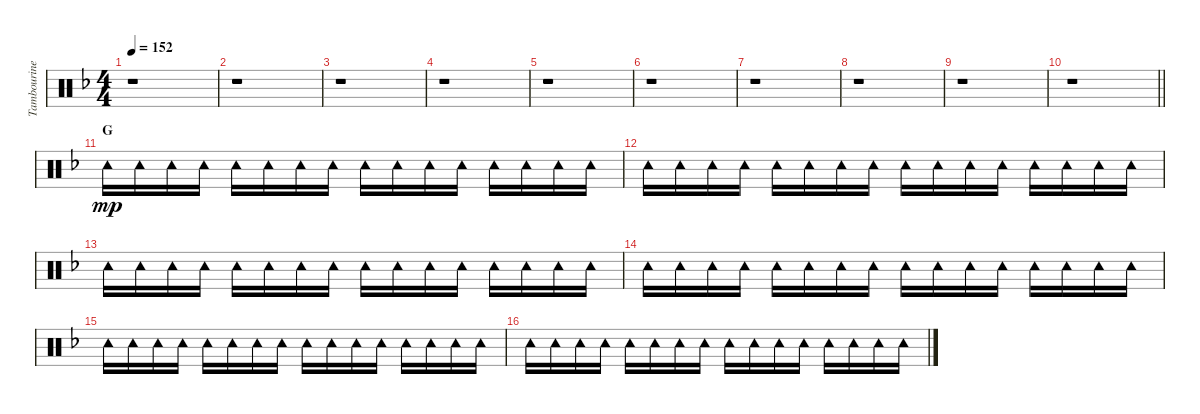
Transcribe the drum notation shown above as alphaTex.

\track ("Tambourine" "Tambourine") {instrument percussion}
\staff {score}
\articulation defaults
\ts (4 4)
\tempo 152
\clef neutral
\ks f
r.1{dy mp} |
r.1 |
r.1 |
r.1 |
r.1 |
r.1 |
r.1 |
r.1 |
r.1 |
\barLineRight lightlight
r.1 |
\section ("" "G")
"Tambourine (hit)".16 "Tambourine (hit)".16 "Tambourine (hit)".16 "Tambourine (hit)".16 "Tambourine (hit)".16 "Tambourine (hit)".16 "Tambourine (hit)".16 "Tambourine (hit)".16 "Tambourine (hit)".16 "Tambourine (hit)".16 "Tambourine (hit)".16 "Tambourine (hit)".16 "Tambourine (hit)".16 "Tambourine (hit)".16 "Tambourine (hit)".16 "Tambourine (hit)".16 |
"Tambourine (hit)".16 "Tambourine (hit)".16 "Tambourine (hit)".16 "Tambourine (hit)".16 "Tambourine (hit)".16 "Tambourine (hit)".16 "Tambourine (hit)".16 "Tambourine (hit)".16 "Tambourine (hit)".16 "Tambourine (hit)".16 "Tambourine (hit)".16 "Tambourine (hit)".16 "Tambourine (hit)".16 "Tambourine (hit)".16 "Tambourine (hit)".16 "Tambourine (hit)".16 |
"Tambourine (hit)".16 "Tambourine (hit)".16 "Tambourine (hit)".16 "Tambourine (hit)".16 "Tambourine (hit)".16 "Tambourine (hit)".16 "Tambourine (hit)".16 "Tambourine (hit)".16 "Tambourine (hit)".16 "Tambourine (hit)".16 "Tambourine (hit)".16 "Tambourine (hit)".16 "Tambourine (hit)".16 "Tambourine (hit)".16 "Tambourine (hit)".16 "Tambourine (hit)".16 |
"Tambourine (hit)".16 "Tambourine (hit)".16 "Tambourine (hit)".16 "Tambourine (hit)".16 "Tambourine (hit)".16 "Tambourine (hit)".16 "Tambourine (hit)".16 "Tambourine (hit)".16 "Tambourine (hit)".16 "Tambourine (hit)".16 "Tambourine (hit)".16 "Tambourine (hit)".16 "Tambourine (hit)".16 "Tambourine (hit)".16 "Tambourine (hit)".16 "Tambourine (hit)".16 |
"Tambourine (hit)".16 "Tambourine (hit)".16 "Tambourine (hit)".16 "Tambourine (hit)".16 "Tambourine (hit)".16 "Tambourine (hit)".16 "Tambourine (hit)".16 "Tambourine (hit)".16 "Tambourine (hit)".16 "Tambourine (hit)".16 "Tambourine (hit)".16 "Tambourine (hit)".16 "Tambourine (hit)".16 "Tambourine (hit)".16 "Tambourine (hit)".16 "Tambourine (hit)".16 |
"Tambourine (hit)".16 "Tambourine (hit)".16 "Tambourine (hit)".16 "Tambourine (hit)".16 "Tambourine (hit)".16 "Tambourine (hit)".16 "Tambourine (hit)".16 "Tambourine (hit)".16 "Tambourine (hit)".16 "Tambourine (hit)".16 "Tambourine (hit)".16 "Tambourine (hit)".16 "Tambourine (hit)".16 "Tambourine (hit)".16 "Tambourine (hit)".16 "Tambourine (hit)".16
